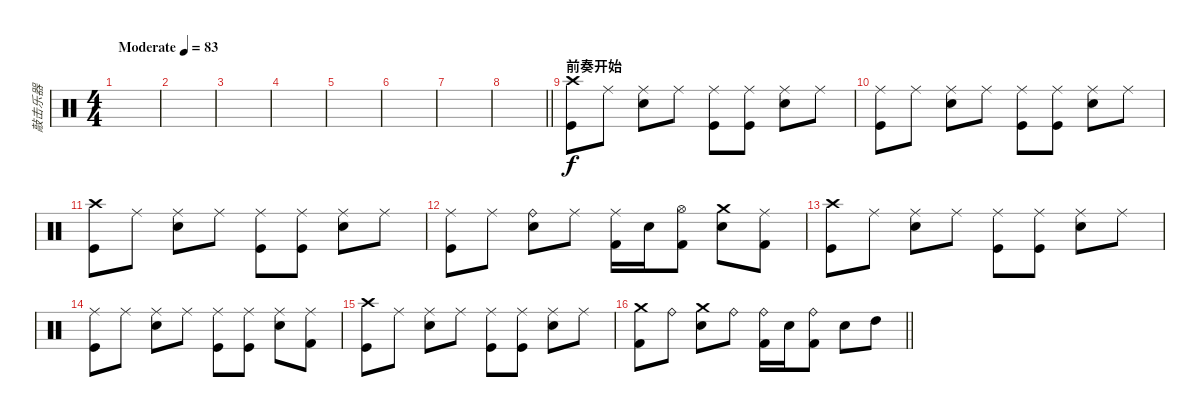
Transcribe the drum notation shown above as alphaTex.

\track ("敲击乐器" "敲击乐器") {mute instrument percussion}
\staff {score}
\articulation defaults
\ts (4 4)
\tempo (83 "Moderate")
\clef neutral
\ks c
|
|
|
|
|
|
|
\barLineRight lightlight
|
\section ("" "前奏开始")
("Crash high (hit)" "Kick (hit)").8 "Ride (middle)".8 ("Ride (middle)" "Snare (hit) 2").8 "Ride (middle)".8 ("Ride (middle)" "Kick (hit)").8 ("Ride (middle)" "Kick (hit)").8 ("Ride (middle)" "Snare (hit) 2").8 "Ride (middle)".8 |
("Ride (middle)" "Kick (hit)").8 "Ride (middle)".8 ("Ride (middle)" "Snare (hit) 2").8 "Ride (middle)".8 ("Ride (middle)" "Kick (hit)").8 ("Ride (middle)" "Kick (hit)").8 ("Ride (middle)" "Snare (hit) 2").8 "Ride (middle)".8 |
("Crash high (hit)" "Kick (hit)").8 "Ride (middle)".8 ("Ride (middle)" "Snare (hit) 2").8 "Ride (middle)".8 ("Ride (middle)" "Kick (hit)").8 ("Ride (middle)" "Kick (hit)").8 ("Ride (middle)" "Snare (hit) 2").8 "Ride (middle)".8 |
("Ride (middle)" "Kick (hit)").8 "Ride (middle)".8 ("Ride (bell)" "Snare (hit) 2").8 "Ride (middle)".8 ("Ride (middle)" "Kick (hit) 2").16 "Electric Snare (hit)".16 ("Hi-Hat (open)" "Kick (hit) 2").8 ("Crash medium (hit)" "Electric Snare (hit)").8 ("Ride (middle)" "Kick (hit) 2").8 |
("Crash high (hit)" "Kick (hit)").8 "Ride (middle)".8 ("Ride (middle)" "Snare (hit) 2").8 "Ride (middle)".8 ("Ride (middle)" "Kick (hit)").8 ("Ride (middle)" "Kick (hit)").8 ("Ride (middle)" "Snare (hit) 2").8 "Ride (middle)".8 |
("Ride (middle)" "Kick (hit)").8 "Ride (middle)".8 ("Ride (middle)" "Snare (hit) 2").8 "Ride (middle)".8 ("Ride (middle)" "Kick (hit)").8 ("Ride (middle)" "Kick (hit)").8 ("Ride (middle)" "Snare (hit) 2").8 ("Ride (middle)" "Kick (hit) 2").8 |
("Crash high (hit)" "Kick (hit)").8 "Ride (middle)".8 ("Ride (middle)" "Snare (hit) 2").8 "Ride (middle)".8 ("Ride (middle)" "Kick (hit)").8 ("Ride (middle)" "Kick (hit)").8 ("Ride (middle)" "Snare (hit) 2").8 "Ride (middle)".8 |
\barLineRight lightlight
("Crash medium (hit)" "Kick (hit) 2").8 "Ride (bell)".8 ("Crash medium (hit)" "Electric Snare (hit)").8 "Ride (bell)".8 ("Ride (bell)" "Kick (hit) 2").16 "Electric Snare (hit)".16 ("Ride (bell)" "Kick (hit) 2").8 "Electric Snare (hit)".8 "High Tom (hit)".8
